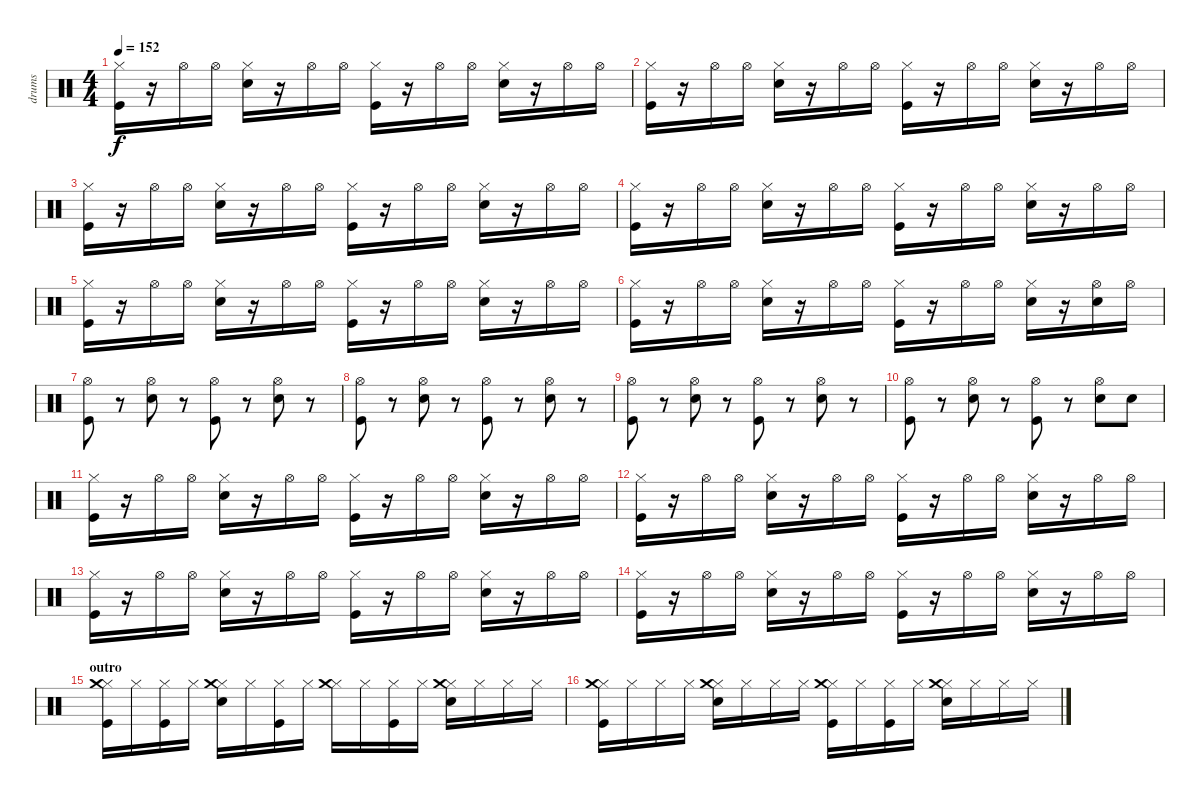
\track ("drums" "drums") {instrument percussion}
\staff {score}
\articulation defaults
\ts (4 4)
\tempo 152
\clef neutral
\ks c
("Hi-Hat (closed)" "Kick (hit)").16{dy f} r.16 "Hi-Hat (open)".16 "Hi-Hat (open)".16 ("Hi-Hat (closed)" "Snare (hit) 2").16 r.16 "Hi-Hat (open)".16 "Hi-Hat (open)".16 ("Hi-Hat (closed)" "Kick (hit)").16 r.16 "Hi-Hat (open)".16 "Hi-Hat (open)".16 ("Hi-Hat (closed)" "Snare (hit) 2").16 r.16 "Hi-Hat (open)".16 "Hi-Hat (open)".16 |
("Hi-Hat (closed)" "Kick (hit)").16 r.16 "Hi-Hat (open)".16 "Hi-Hat (open)".16 ("Hi-Hat (closed)" "Snare (hit) 2").16 r.16 "Hi-Hat (open)".16 "Hi-Hat (open)".16 ("Hi-Hat (closed)" "Kick (hit)").16 r.16 "Hi-Hat (open)".16 "Hi-Hat (open)".16 ("Hi-Hat (closed)" "Snare (hit) 2").16 r.16 "Hi-Hat (open)".16 "Hi-Hat (open)".16 |
("Hi-Hat (closed)" "Kick (hit)").16 r.16 "Hi-Hat (open)".16 "Hi-Hat (open)".16 ("Hi-Hat (closed)" "Snare (hit) 2").16 r.16 "Hi-Hat (open)".16 "Hi-Hat (open)".16 ("Hi-Hat (closed)" "Kick (hit)").16 r.16 "Hi-Hat (open)".16 "Hi-Hat (open)".16 ("Hi-Hat (closed)" "Snare (hit) 2").16 r.16 "Hi-Hat (open)".16 "Hi-Hat (open)".16 |
("Hi-Hat (closed)" "Kick (hit)").16 r.16 "Hi-Hat (open)".16 "Hi-Hat (open)".16 ("Hi-Hat (closed)" "Snare (hit) 2").16 r.16 "Hi-Hat (open)".16 "Hi-Hat (open)".16 ("Hi-Hat (closed)" "Kick (hit)").16 r.16 "Hi-Hat (open)".16 "Hi-Hat (open)".16 ("Hi-Hat (closed)" "Snare (hit) 2").16 r.16 "Hi-Hat (open)".16 "Hi-Hat (open)".16 |
("Hi-Hat (closed)" "Kick (hit)").16 r.16 "Hi-Hat (open)".16 "Hi-Hat (open)".16 ("Hi-Hat (closed)" "Snare (hit) 2").16 r.16 "Hi-Hat (open)".16 "Hi-Hat (open)".16 ("Hi-Hat (closed)" "Kick (hit)").16 r.16 "Hi-Hat (open)".16 "Hi-Hat (open)".16 ("Hi-Hat (closed)" "Snare (hit) 2").16 r.16 "Hi-Hat (open)".16 "Hi-Hat (open)".16 |
("Hi-Hat (closed)" "Kick (hit)").16 r.16 "Hi-Hat (open)".16 "Hi-Hat (open)".16 ("Hi-Hat (closed)" "Snare (hit) 2").16 r.16 "Hi-Hat (open)".16 "Hi-Hat (open)".16 ("Hi-Hat (closed)" "Kick (hit)").16 r.16 "Hi-Hat (open)".16 "Hi-Hat (open)".16 ("Hi-Hat (closed)" "Snare (hit) 2").16 r.16 ("Hi-Hat (open)" "Snare (hit) 2").16 "Hi-Hat (open)".16 |
("Hi-Hat (open)" "Kick (hit)").8 r.8 ("Hi-Hat (open)" "Snare (hit) 2").8 r.8 ("Hi-Hat (open)" "Kick (hit)").8 r.8 ("Hi-Hat (open)" "Snare (hit) 2").8 r.8 |
("Hi-Hat (open)" "Kick (hit)").8 r.8 ("Hi-Hat (open)" "Snare (hit) 2").8 r.8 ("Hi-Hat (open)" "Kick (hit)").8 r.8 ("Hi-Hat (open)" "Snare (hit) 2").8 r.8 |
("Hi-Hat (open)" "Kick (hit)").8 r.8 ("Hi-Hat (open)" "Snare (hit) 2").8 r.8 ("Hi-Hat (open)" "Kick (hit)").8 r.8 ("Hi-Hat (open)" "Snare (hit) 2").8 r.8 |
("Hi-Hat (open)" "Kick (hit)").8 r.8 ("Hi-Hat (open)" "Snare (hit) 2").8 r.8 ("Hi-Hat (open)" "Kick (hit)").8 r.8 ("Hi-Hat (open)" "Snare (hit) 2").8 "Snare (hit) 2".8 |
("Hi-Hat (closed)" "Kick (hit)").16 r.16 "Hi-Hat (open)".16 "Hi-Hat (open)".16 ("Hi-Hat (closed)" "Snare (hit) 2").16 r.16 "Hi-Hat (open)".16 "Hi-Hat (open)".16 ("Hi-Hat (closed)" "Kick (hit)").16 r.16 "Hi-Hat (open)".16 "Hi-Hat (open)".16 ("Hi-Hat (closed)" "Snare (hit) 2").16 r.16 "Hi-Hat (open)".16 "Hi-Hat (open)".16 |
("Hi-Hat (closed)" "Kick (hit)").16 r.16 "Hi-Hat (open)".16 "Hi-Hat (open)".16 ("Hi-Hat (closed)" "Snare (hit) 2").16 r.16 "Hi-Hat (open)".16 "Hi-Hat (open)".16 ("Hi-Hat (closed)" "Kick (hit)").16 r.16 "Hi-Hat (open)".16 "Hi-Hat (open)".16 ("Hi-Hat (closed)" "Snare (hit) 2").16 r.16 "Hi-Hat (open)".16 "Hi-Hat (open)".16 |
("Hi-Hat (closed)" "Kick (hit)").16 r.16 "Hi-Hat (open)".16 "Hi-Hat (open)".16 ("Hi-Hat (closed)" "Snare (hit) 2").16 r.16 "Hi-Hat (open)".16 "Hi-Hat (open)".16 ("Hi-Hat (closed)" "Kick (hit)").16 r.16 "Hi-Hat (open)".16 "Hi-Hat (open)".16 ("Hi-Hat (closed)" "Snare (hit) 2").16 r.16 "Hi-Hat (open)".16 "Hi-Hat (open)".16 |
("Hi-Hat (closed)" "Kick (hit)").16 r.16 "Hi-Hat (open)".16 "Hi-Hat (open)".16 ("Hi-Hat (closed)" "Snare (hit) 2").16 r.16 "Hi-Hat (open)".16 "Hi-Hat (open)".16 ("Hi-Hat (closed)" "Kick (hit)").16 r.16 "Hi-Hat (open)".16 "Hi-Hat (open)".16 ("Hi-Hat (closed)" "Snare (hit) 2").16 r.16 "Hi-Hat (open)".16 "Hi-Hat (open)".16 |
\section ("" "outro")
("Hi-Hat (closed)" "Crash medium (hit)" "Kick (hit)").16 "Hi-Hat (closed)".16 ("Hi-Hat (closed)" "Kick (hit)").16 "Hi-Hat (closed)".16 ("Hi-Hat (closed)" "Crash medium (hit)" "Snare (hit) 2").16 "Hi-Hat (closed)".16 ("Hi-Hat (closed)" "Kick (hit)").16 "Hi-Hat (closed)".16 ("Hi-Hat (closed)" "Crash medium (hit)").16 "Hi-Hat (closed)".16 ("Hi-Hat (closed)" "Kick (hit)").16 "Hi-Hat (closed)".16 ("Hi-Hat (closed)" "Crash medium (hit)" "Snare (hit) 2").16 "Hi-Hat (closed)".16 "Hi-Hat (closed)".16 "Hi-Hat (closed)".16 |
("Hi-Hat (closed)" "Crash medium (hit)" "Kick (hit)").16 "Hi-Hat (closed)".16 "Hi-Hat (closed)".16 "Hi-Hat (closed)".16 ("Hi-Hat (closed)" "Crash medium (hit)" "Snare (hit) 2").16 "Hi-Hat (closed)".16 "Hi-Hat (closed)".16 "Hi-Hat (closed)".16 ("Hi-Hat (closed)" "Crash medium (hit)" "Kick (hit)").16 "Hi-Hat (closed)".16 ("Hi-Hat (closed)" "Kick (hit)").16 "Hi-Hat (closed)".16 ("Hi-Hat (closed)" "Crash medium (hit)" "Snare (hit) 2").16 "Hi-Hat (closed)".16 "Hi-Hat (closed)".16 "Hi-Hat (closed)".16
